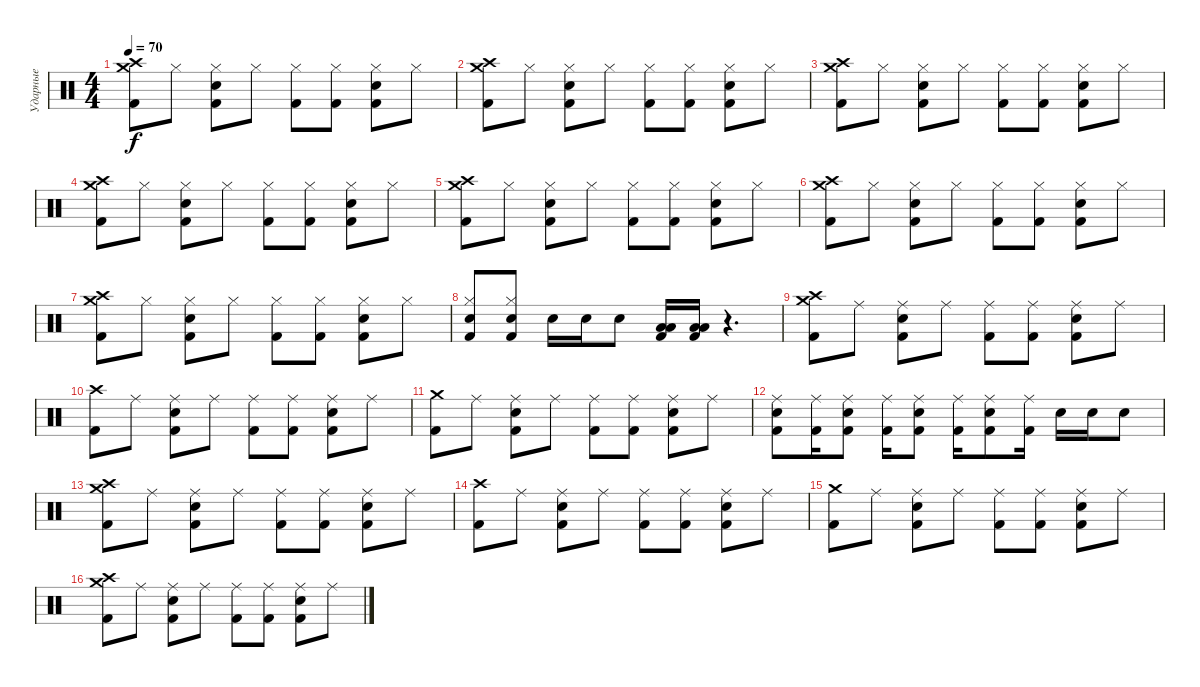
\track ("Ударные" "Ударные") {instrument percussion}
\staff {score}
\articulation defaults
\ts (4 4)
\tempo 70
\clef neutral
\ks c
("Kick (hit) 2" "Crash medium (hit)" "Crash high (hit)").8{dy f} "Hi-Hat (closed)".8 ("Kick (hit) 2" "Snare (hit) 2" "Hi-Hat (closed)").8 "Hi-Hat (closed)".8 ("Kick (hit) 2" "Hi-Hat (closed)").8 ("Kick (hit) 2" "Hi-Hat (closed)").8 ("Kick (hit) 2" "Snare (hit) 2" "Hi-Hat (closed)").8 "Hi-Hat (closed)".8 |
("Kick (hit) 2" "Crash medium (hit)" "Crash high (hit)").8 "Hi-Hat (closed)".8 ("Kick (hit) 2" "Snare (hit) 2" "Hi-Hat (closed)").8 "Hi-Hat (closed)".8 ("Kick (hit) 2" "Hi-Hat (closed)").8 ("Kick (hit) 2" "Hi-Hat (closed)").8 ("Kick (hit) 2" "Snare (hit) 2" "Hi-Hat (closed)").8 "Hi-Hat (closed)".8 |
("Kick (hit) 2" "Crash medium (hit)" "Crash high (hit)").8 "Hi-Hat (closed)".8 ("Kick (hit) 2" "Snare (hit) 2" "Hi-Hat (closed)").8 "Hi-Hat (closed)".8 ("Kick (hit) 2" "Hi-Hat (closed)").8 ("Kick (hit) 2" "Hi-Hat (closed)").8 ("Kick (hit) 2" "Snare (hit) 2" "Hi-Hat (closed)").8 "Hi-Hat (closed)".8 |
("Kick (hit) 2" "Crash medium (hit)" "Crash high (hit)").8 "Hi-Hat (closed)".8 ("Kick (hit) 2" "Snare (hit) 2" "Hi-Hat (closed)").8 "Hi-Hat (closed)".8 ("Kick (hit) 2" "Hi-Hat (closed)").8 ("Kick (hit) 2" "Hi-Hat (closed)").8 ("Kick (hit) 2" "Snare (hit) 2" "Hi-Hat (closed)").8 "Hi-Hat (closed)".8 |
("Kick (hit) 2" "Crash medium (hit)" "Crash high (hit)").8 "Hi-Hat (closed)".8 ("Kick (hit) 2" "Snare (hit) 2" "Hi-Hat (closed)").8 "Hi-Hat (closed)".8 ("Kick (hit) 2" "Hi-Hat (closed)").8 ("Kick (hit) 2" "Hi-Hat (closed)").8 ("Kick (hit) 2" "Snare (hit) 2" "Hi-Hat (closed)").8 "Hi-Hat (closed)".8 |
("Kick (hit) 2" "Crash medium (hit)" "Crash high (hit)").8 "Hi-Hat (closed)".8 ("Kick (hit) 2" "Snare (hit) 2" "Hi-Hat (closed)").8 "Hi-Hat (closed)".8 ("Kick (hit) 2" "Hi-Hat (closed)").8 ("Kick (hit) 2" "Hi-Hat (closed)").8 ("Kick (hit) 2" "Snare (hit) 2" "Hi-Hat (closed)").8 "Hi-Hat (closed)".8 |
("Kick (hit) 2" "Crash medium (hit)" "Crash high (hit)").8 "Hi-Hat (closed)".8 ("Kick (hit) 2" "Snare (hit) 2" "Hi-Hat (closed)").8 "Hi-Hat (closed)".8 ("Kick (hit) 2" "Hi-Hat (closed)").8 ("Kick (hit) 2" "Hi-Hat (closed)").8 ("Kick (hit) 2" "Snare (hit) 2" "Hi-Hat (closed)").8 "Hi-Hat (closed)".8 |
("Kick (hit) 2" "Snare (hit) 2" "Hi-Hat (closed)").8 ("Kick (hit) 2" "Snare (hit) 2" "Hi-Hat (closed)").8 "Snare (hit) 2".16 "Snare (hit) 2".16 "Snare (hit) 2".8 ("Kick (hit) 2" "Low Floor Tom (hit)" "Low Tom (hit)").16 ("Kick (hit) 2" "Low Floor Tom (hit)" "Low Tom (hit)").16 r.4{d} |
("Kick (hit) 2" "Crash medium (hit)" "Crash high (hit)").8 "Ride (middle)".8 ("Kick (hit) 2" "Snare (hit) 2" "Ride (middle)").8 "Ride (middle)".8 ("Kick (hit) 2" "Ride (middle)").8 ("Kick (hit) 2" "Ride (middle)").8 ("Kick (hit) 2" "Snare (hit) 2" "Ride (middle)").8 "Ride (middle)".8 |
("Kick (hit) 2" "Crash high (hit)").8 "Ride (middle)".8 ("Kick (hit) 2" "Snare (hit) 2" "Ride (middle)").8 "Ride (middle)".8 ("Kick (hit) 2" "Ride (middle)").8 ("Kick (hit) 2" "Ride (middle)").8 ("Kick (hit) 2" "Snare (hit) 2" "Ride (middle)").8 "Ride (middle)".8 |
("Kick (hit) 2" "Crash medium (hit)").8 "Ride (middle)".8 ("Kick (hit) 2" "Snare (hit) 2" "Ride (middle)").8 "Ride (middle)".8 ("Kick (hit) 2" "Ride (middle)").8 ("Kick (hit) 2" "Ride (middle)").8 ("Kick (hit) 2" "Snare (hit) 2" "Ride (middle)").8 "Ride (middle)".8 |
("Kick (hit) 2" "Snare (hit) 2" "Ride (middle)").8 ("Kick (hit) 2" "Ride (middle)").16 ("Kick (hit) 2" "Snare (hit) 2" "Ride (middle)").8 ("Kick (hit) 2" "Ride (middle)").16 ("Kick (hit) 2" "Snare (hit) 2" "Ride (middle)").8 ("Kick (hit) 2" "Ride (middle)").16 ("Kick (hit) 2" "Snare (hit) 2" "Ride (middle)").8 ("Kick (hit) 2" "Ride (middle)").16 "Snare (hit) 2".16 "Snare (hit) 2".16 "Snare (hit) 2".8 |
("Kick (hit) 2" "Crash medium (hit)" "Crash high (hit)").8 "Ride (middle)".8 ("Kick (hit) 2" "Snare (hit) 2" "Ride (middle)").8 "Ride (middle)".8 ("Kick (hit) 2" "Ride (middle)").8 ("Kick (hit) 2" "Ride (middle)").8 ("Kick (hit) 2" "Snare (hit) 2" "Ride (middle)").8 "Ride (middle)".8 |
("Kick (hit) 2" "Crash high (hit)").8 "Ride (middle)".8 ("Kick (hit) 2" "Snare (hit) 2" "Ride (middle)").8 "Ride (middle)".8 ("Kick (hit) 2" "Ride (middle)").8 ("Kick (hit) 2" "Ride (middle)").8 ("Kick (hit) 2" "Snare (hit) 2" "Ride (middle)").8 "Ride (middle)".8 |
("Kick (hit) 2" "Crash medium (hit)").8 "Ride (middle)".8 ("Kick (hit) 2" "Snare (hit) 2" "Ride (middle)").8 "Ride (middle)".8 ("Kick (hit) 2" "Ride (middle)").8 ("Kick (hit) 2" "Ride (middle)").8 ("Kick (hit) 2" "Snare (hit) 2" "Ride (middle)").8 "Ride (middle)".8 |
("Kick (hit) 2" "Crash medium (hit)" "Crash high (hit)").8 "Ride (middle)".8 ("Kick (hit) 2" "Snare (hit) 2" "Ride (middle)").8 "Ride (middle)".8 ("Kick (hit) 2" "Ride (middle)").8 ("Kick (hit) 2" "Ride (middle)").8 ("Kick (hit) 2" "Snare (hit) 2" "Ride (middle)").8 "Ride (middle)".8
